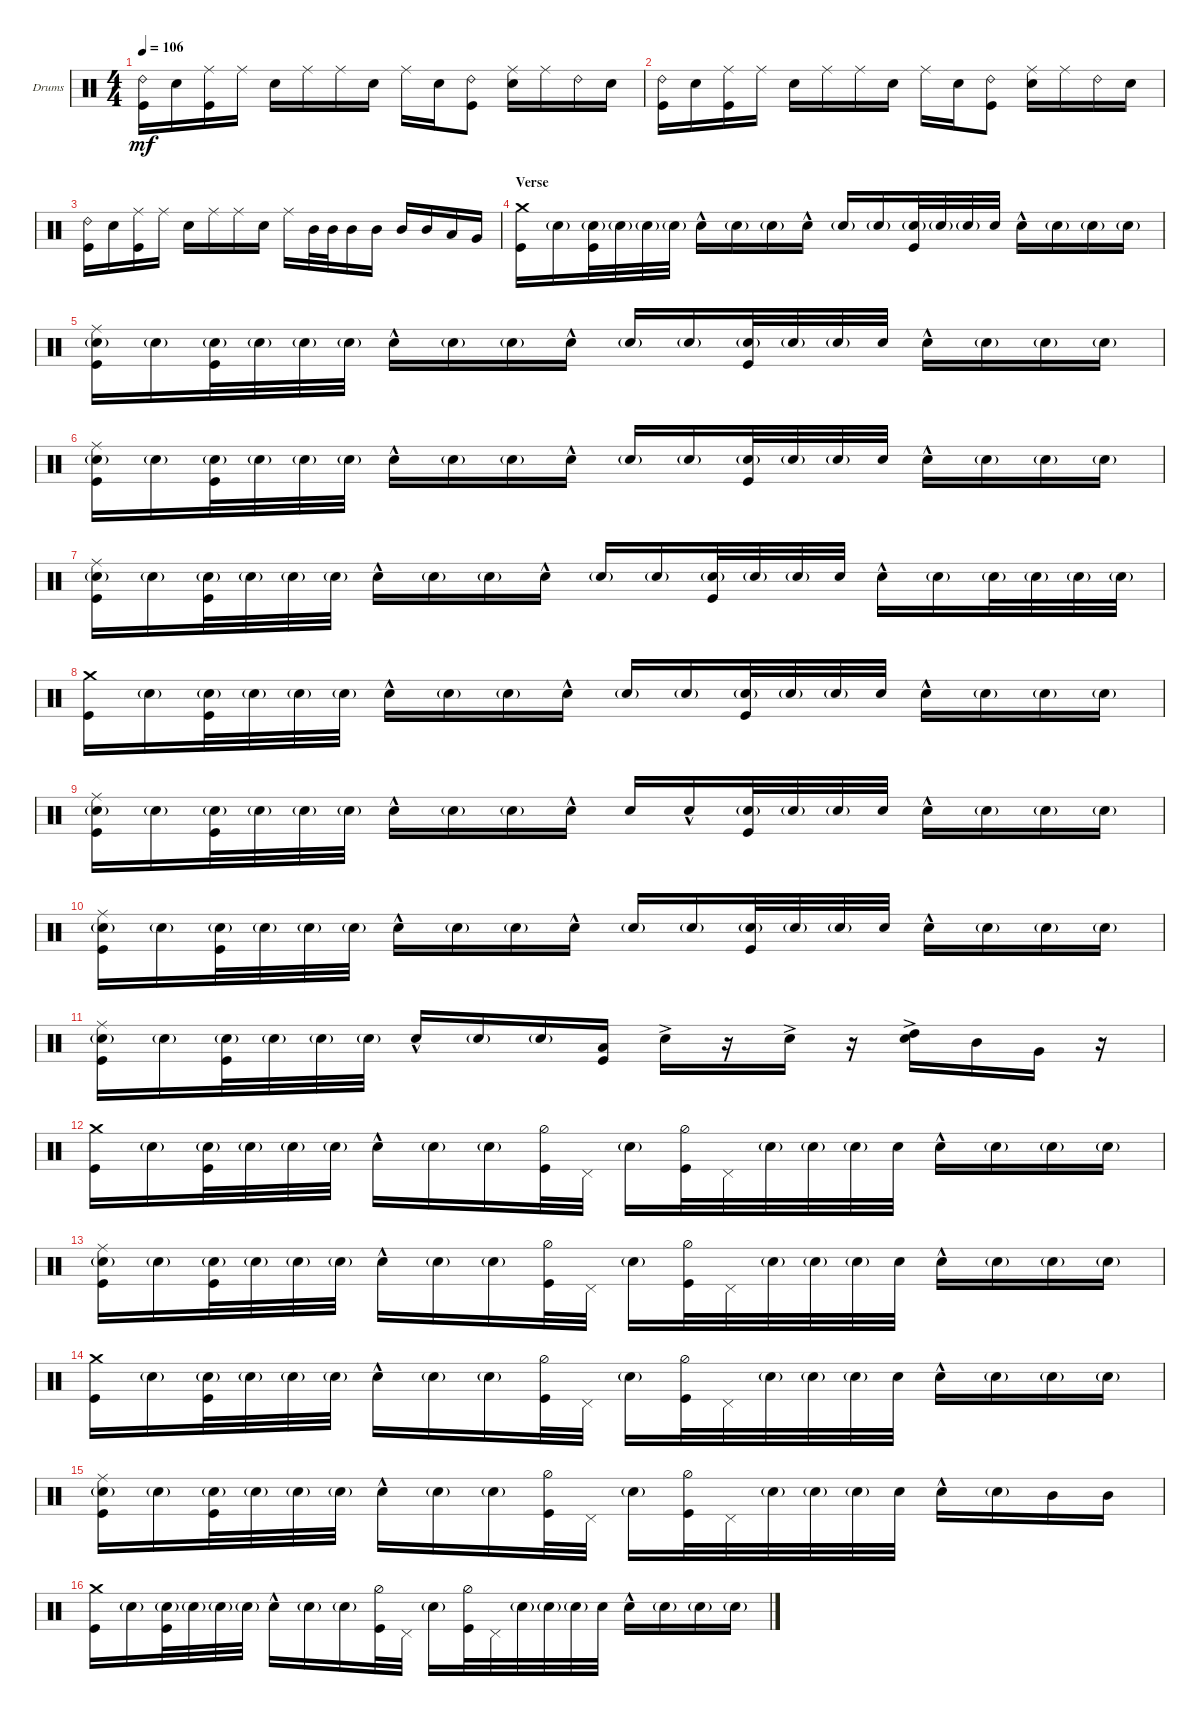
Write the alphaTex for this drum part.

\defaultSystemsLayout 4
\bracketExtendMode groupsimilarinstruments
\firstSystemTrackNameOrientation horizontal
\otherSystemsTrackNameOrientation horizontal
\track ("Drumkit" "Drums") {mute instrument percussion}
\staff {score}
\articulation defaults
\ts (4 4)
\tempo 106
\clef neutral
\scale
0.333333
\ks c
("Kick (hit)" "Ride (bell) 2").16{dy mf} "Snare (hit) 2".16 ("Kick (hit)" "Ride (middle)").16 "Ride (middle)".16 "Snare (hit) 2".16 "Ride (middle)".16 "Ride (middle)".16 "Snare (hit) 2".16 "Ride (middle)".16 "Snare (hit) 2".16 ("Kick (hit)" "Ride (bell) 2").8 ("Snare (hit) 2" "Ride (middle)").16 "Ride (middle)".16 "Ride (bell) 2".16 "Snare (hit) 2".16 |
\scale
0.333333 ("Kick (hit)" "Ride (bell) 2").16 "Snare (hit) 2".16 ("Kick (hit)" "Ride (middle)").16 "Ride (middle)".16 "Snare (hit) 2".16 "Ride (middle)".16 "Ride (middle)".16 "Snare (hit) 2".16 "Ride (middle)".16 "Snare (hit) 2".16 ("Kick (hit)" "Ride (bell) 2").8 ("Snare (hit) 2" "Ride (middle)").16 "Ride (middle)".16 "Ride (bell) 2".16 "Snare (hit) 2".16 |
\scale
0.333333 ("Kick (hit)" "Ride (bell) 2").16 "Snare (hit) 2".16 ("Kick (hit)" "Ride (middle)").16 "Ride (middle)".16 "Snare (hit) 2".16 "Ride (middle)".16 "Ride (middle)".16 "Snare (hit) 2".16 "Ride (middle)".16 "Mid Tom (hit)".32 "Mid Tom (hit)".32 "Mid Tom (hit)".16 "Mid Tom (hit)".16 "Mid Tom (hit)".16 "Mid Tom (hit)".16 "Low Tom (hit)".16 "Very Low Tom (hit)".16 |
\section ("" "Verse")
\scale
0.333333 ("Kick (hit)" "Crash medium (hit)").16 "Snare (hit) 2"{g}.16 ("Kick (hit)" "Snare (hit) 2"{g}).32 "Snare (hit) 2"{g}.32 "Snare (hit) 2"{g}.32 "Snare (hit) 2"{g}.32 "Snare (hit) 2"{hac}.16 "Snare (hit) 2"{g}.16 "Snare (hit) 2"{g}.16 "Snare (hit) 2"{hac}.16 "Snare (hit) 2"{g}.16 "Snare (hit) 2"{g}.16 ("Kick (hit)" "Snare (hit) 2"{g}).32 "Snare (hit) 2"{g}.32 "Snare (hit) 2"{g}.32 "Snare (hit) 2".32 "Snare (hit) 2"{hac}.16 "Snare (hit) 2"{g}.16 "Snare (hit) 2"{g}.16 "Snare (hit) 2"{g}.16 |
\scale
0.333333 ("Kick (hit)" "Snare (hit) 2"{g} "Ride (middle)").16 "Snare (hit) 2"{g}.16 ("Kick (hit)" "Snare (hit) 2"{g}).32 "Snare (hit) 2"{g}.32 "Snare (hit) 2"{g}.32 "Snare (hit) 2"{g}.32 "Snare (hit) 2"{hac}.16 "Snare (hit) 2"{g}.16 "Snare (hit) 2"{g}.16 "Snare (hit) 2"{hac}.16 "Snare (hit) 2"{g}.16 "Snare (hit) 2"{g}.16 ("Kick (hit)" "Snare (hit) 2"{g}).32 "Snare (hit) 2"{g}.32 "Snare (hit) 2"{g}.32 "Snare (hit) 2".32 "Snare (hit) 2"{hac}.16 "Snare (hit) 2"{g}.16 "Snare (hit) 2"{g}.16 "Snare (hit) 2"{g}.16 |
\scale
0.333333 ("Kick (hit)" "Snare (hit) 2"{g} "Ride (middle)").16 "Snare (hit) 2"{g}.16 ("Kick (hit)" "Snare (hit) 2"{g}).32 "Snare (hit) 2"{g}.32 "Snare (hit) 2"{g}.32 "Snare (hit) 2"{g}.32 "Snare (hit) 2"{hac}.16 "Snare (hit) 2"{g}.16 "Snare (hit) 2"{g}.16 "Snare (hit) 2"{hac}.16 "Snare (hit) 2"{g}.16 "Snare (hit) 2"{g}.16 ("Kick (hit)" "Snare (hit) 2"{g}).32 "Snare (hit) 2"{g}.32 "Snare (hit) 2"{g}.32 "Snare (hit) 2".32 "Snare (hit) 2"{hac}.16 "Snare (hit) 2"{g}.16 "Snare (hit) 2"{g}.16 "Snare (hit) 2"{g}.16 |
\scale
0.333333 ("Kick (hit)" "Snare (hit) 2"{g} "Ride (middle)").16 "Snare (hit) 2"{g}.16 ("Kick (hit)" "Snare (hit) 2"{g}).32 "Snare (hit) 2"{g}.32 "Snare (hit) 2"{g}.32 "Snare (hit) 2"{g}.32 "Snare (hit) 2"{hac}.16 "Snare (hit) 2"{g}.16 "Snare (hit) 2"{g}.16 "Snare (hit) 2"{hac}.16 "Snare (hit) 2"{g}.16 "Snare (hit) 2"{g}.16 ("Kick (hit)" "Snare (hit) 2"{g}).32 "Snare (hit) 2"{g}.32 "Snare (hit) 2"{g}.32 "Snare (hit) 2".32 "Snare (hit) 2"{hac}.16 "Snare (hit) 2"{g}.16 "Snare (hit) 2"{g}.32 "Snare (hit) 2"{g}.32 "Snare (hit) 2"{g}.32 "Snare (hit) 2"{g}.32 |
\scale
0.333333 ("Kick (hit)" "Crash medium (hit)").16 "Snare (hit) 2"{g}.16 ("Kick (hit)" "Snare (hit) 2"{g}).32 "Snare (hit) 2"{g}.32 "Snare (hit) 2"{g}.32 "Snare (hit) 2"{g}.32 "Snare (hit) 2"{hac}.16 "Snare (hit) 2"{g}.16 "Snare (hit) 2"{g}.16 "Snare (hit) 2"{hac}.16 "Snare (hit) 2"{g}.16 "Snare (hit) 2"{g}.16 ("Kick (hit)" "Snare (hit) 2"{g}).32 "Snare (hit) 2"{g}.32 "Snare (hit) 2"{g}.32 "Snare (hit) 2".32 "Snare (hit) 2"{hac}.16 "Snare (hit) 2"{g}.16 "Snare (hit) 2"{g}.16 "Snare (hit) 2"{g}.16 |
\scale
0.333333 ("Kick (hit)" "Snare (hit) 2"{g} "Ride (middle)").16 "Snare (hit) 2"{g}.16 ("Kick (hit)" "Snare (hit) 2"{g}).32 "Snare (hit) 2"{g}.32 "Snare (hit) 2"{g}.32 "Snare (hit) 2"{g}.32 "Snare (hit) 2"{hac}.16 "Snare (hit) 2"{g}.16 "Snare (hit) 2"{g}.16 "Snare (hit) 2"{hac}.16 "Snare (hit) 2".16 "Snare (hit) 2"{hac}.16 ("Kick (hit)" "Snare (hit) 2"{g}).32 "Snare (hit) 2"{g}.32 "Snare (hit) 2"{g}.32 "Snare (hit) 2".32 "Snare (hit) 2"{hac}.16 "Snare (hit) 2"{g}.16 "Snare (hit) 2"{g}.16 "Snare (hit) 2"{g}.16 |
\scale
0.333333 ("Kick (hit)" "Snare (hit) 2"{g} "Ride (middle)").16 "Snare (hit) 2"{g}.16 ("Kick (hit)" "Snare (hit) 2"{g}).32 "Snare (hit) 2"{g}.32 "Snare (hit) 2"{g}.32 "Snare (hit) 2"{g}.32 "Snare (hit) 2"{hac}.16 "Snare (hit) 2"{g}.16 "Snare (hit) 2"{g}.16 "Snare (hit) 2"{hac}.16 "Snare (hit) 2"{g}.16 "Snare (hit) 2"{g}.16 ("Kick (hit)" "Snare (hit) 2"{g}).32 "Snare (hit) 2"{g}.32 "Snare (hit) 2"{g}.32 "Snare (hit) 2".32 "Snare (hit) 2"{hac}.16 "Snare (hit) 2"{g}.16 "Snare (hit) 2"{g}.16 "Snare (hit) 2"{g}.16 |
\scale
0.333333 ("Kick (hit)" "Snare (hit) 2"{g} "Ride (middle)").16 "Snare (hit) 2"{g}.16 ("Kick (hit)" "Snare (hit) 2"{g}).32 "Snare (hit) 2"{g}.32 "Snare (hit) 2"{g}.32 "Snare (hit) 2"{g}.32 "Snare (hit) 2"{hac}.16 "Snare (hit) 2"{g}.16 "Snare (hit) 2"{g}.16 ("Kick (hit)" "Low Tom (hit)").16 "Snare (hit) 2"{ac}.16 r.16 "Snare (hit) 2"{ac}.16 r.16 ("High Tom (hit)" "Snare (hit) 2"{ac}).16 "Mid Tom (hit)".16 "Very Low Tom (hit)".16 r.16 |
\scale
0.333333 ("Kick (hit)" "Crash medium (hit)").16 "Snare (hit) 2"{g}.16 ("Kick (hit)" "Snare (hit) 2"{g}).32 "Snare (hit) 2"{g}.32 "Snare (hit) 2"{g}.32 "Snare (hit) 2"{g}.32 "Snare (hit) 2"{hac}.16 "Snare (hit) 2"{g}.16 "Snare (hit) 2"{g}.16 ("Hi-Hat (half)" "Kick (hit)").32 "Pedal Hi-Hat (hit)".32 "Snare (hit) 2"{g}.16 ("Hi-Hat (half)" "Kick (hit)").32 "Pedal Hi-Hat (hit)".32 "Snare (hit) 2"{g}.32 "Snare (hit) 2"{g}.32 "Snare (hit) 2"{g}.32 "Snare (hit) 2".32 "Snare (hit) 2"{hac}.16 "Snare (hit) 2"{g}.16 "Snare (hit) 2"{g}.16 "Snare (hit) 2"{g}.16 |
\scale
0.333333 ("Kick (hit)" "Snare (hit) 2"{g} "Ride (middle)").16 "Snare (hit) 2"{g}.16 ("Kick (hit)" "Snare (hit) 2"{g}).32 "Snare (hit) 2"{g}.32 "Snare (hit) 2"{g}.32 "Snare (hit) 2"{g}.32 "Snare (hit) 2"{hac}.16 "Snare (hit) 2"{g}.16 "Snare (hit) 2"{g}.16 ("Hi-Hat (half)" "Kick (hit)").32 "Pedal Hi-Hat (hit)".32 "Snare (hit) 2"{g}.16 ("Hi-Hat (half)" "Kick (hit)").32 "Pedal Hi-Hat (hit)".32 "Snare (hit) 2"{g}.32 "Snare (hit) 2"{g}.32 "Snare (hit) 2"{g}.32 "Snare (hit) 2".32 "Snare (hit) 2"{hac}.16 "Snare (hit) 2"{g}.16 "Snare (hit) 2"{g}.16 "Snare (hit) 2"{g}.16 |
\scale
0.333333 ("Kick (hit)" "Crash medium (hit)").16 "Snare (hit) 2"{g}.16 ("Kick (hit)" "Snare (hit) 2"{g}).32 "Snare (hit) 2"{g}.32 "Snare (hit) 2"{g}.32 "Snare (hit) 2"{g}.32 "Snare (hit) 2"{hac}.16 "Snare (hit) 2"{g}.16 "Snare (hit) 2"{g}.16 ("Hi-Hat (half)" "Kick (hit)").32 "Pedal Hi-Hat (hit)".32 "Snare (hit) 2"{g}.16 ("Hi-Hat (half)" "Kick (hit)").32 "Pedal Hi-Hat (hit)".32 "Snare (hit) 2"{g}.32 "Snare (hit) 2"{g}.32 "Snare (hit) 2"{g}.32 "Snare (hit) 2".32 "Snare (hit) 2"{hac}.16 "Snare (hit) 2"{g}.16 "Snare (hit) 2"{g}.16 "Snare (hit) 2"{g}.16 |
\scale
0.333333 ("Kick (hit)" "Snare (hit) 2"{g} "Ride (middle)").16 "Snare (hit) 2"{g}.16 ("Kick (hit)" "Snare (hit) 2"{g}).32 "Snare (hit) 2"{g}.32 "Snare (hit) 2"{g}.32 "Snare (hit) 2"{g}.32 "Snare (hit) 2"{hac}.16 "Snare (hit) 2"{g}.16 "Snare (hit) 2"{g}.16 ("Hi-Hat (half)" "Kick (hit)").32 "Pedal Hi-Hat (hit)".32 "Snare (hit) 2"{g}.16 ("Hi-Hat (half)" "Kick (hit)").32 "Pedal Hi-Hat (hit)".32 "Snare (hit) 2"{g}.32 "Snare (hit) 2"{g}.32 "Snare (hit) 2"{g}.32 "Snare (hit) 2".32 "Snare (hit) 2"{hac}.16 "Snare (hit) 2"{g}.16 "Mid Tom (hit)".16 "Mid Tom (hit)".16 |
\scale
0.333333 ("Kick (hit)" "Crash medium (hit)").16 "Snare (hit) 2"{g}.16 ("Kick (hit)" "Snare (hit) 2"{g}).32 "Snare (hit) 2"{g}.32 "Snare (hit) 2"{g}.32 "Snare (hit) 2"{g}.32 "Snare (hit) 2"{hac}.16 "Snare (hit) 2"{g}.16 "Snare (hit) 2"{g}.16 ("Hi-Hat (half)" "Kick (hit)").32 "Pedal Hi-Hat (hit)".32 "Snare (hit) 2"{g}.16 ("Hi-Hat (half)" "Kick (hit)").32 "Pedal Hi-Hat (hit)".32 "Snare (hit) 2"{g}.32 "Snare (hit) 2"{g}.32 "Snare (hit) 2"{g}.32 "Snare (hit) 2".32 "Snare (hit) 2"{hac}.16 "Snare (hit) 2"{g}.16 "Snare (hit) 2"{g}.16 "Snare (hit) 2"{g}.16
